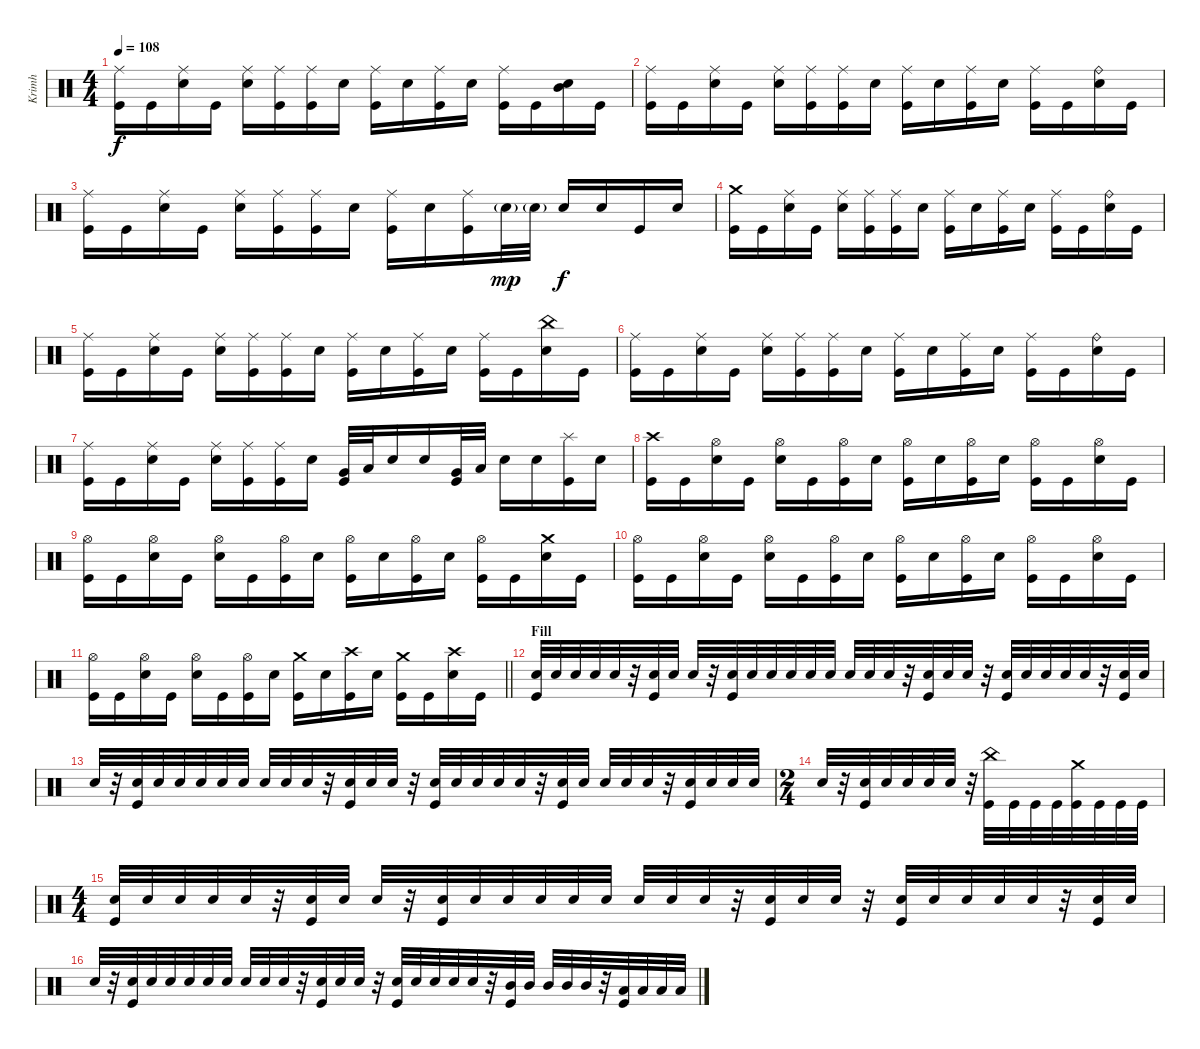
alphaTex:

\track ("Krimh" "Krimh") {instrument percussion}
\staff {score}
\articulation defaults
\ts (4 4)
\tempo 108
\clef neutral
\ks c
("Ride (middle)" "Kick (hit)").16{dy f} "Kick (hit)".16 ("Ride (middle)" "Electric Snare (hit)").16 "Kick (hit)".16 ("Ride (middle)" "Electric Snare (hit)").16 ("Ride (middle)" "Kick (hit)").16 ("Ride (middle)" "Kick (hit)").16 "Electric Snare (hit)".16 ("Ride (middle)" "Kick (hit)").16 "Electric Snare (hit)".16 ("Ride (middle)" "Kick (hit)").16 "Electric Snare (hit)".16 ("Ride (middle)" "Kick (hit)").16 "Kick (hit)".16 ("Mid Tom (hit)" "Electric Snare (hit)").16 "Kick (hit)".16 |
("Ride (middle)" "Kick (hit)").16 "Kick (hit)".16 ("Ride (middle)" "Electric Snare (hit)").16 "Kick (hit)".16 ("Ride (middle)" "Electric Snare (hit)").16 ("Ride (middle)" "Kick (hit)").16 ("Ride (middle)" "Kick (hit)").16 "Electric Snare (hit)".16 ("Ride (middle)" "Kick (hit)").16 "Electric Snare (hit)".16 ("Ride (middle)" "Kick (hit)").16 "Electric Snare (hit)".16 ("Ride (middle)" "Kick (hit)").16 "Kick (hit)".16 ("Ride (bell)" "Electric Snare (hit)").16 "Kick (hit)".16 |
("Ride (middle)" "Kick (hit)").16 "Kick (hit)".16 ("Ride (middle)" "Electric Snare (hit)").16 "Kick (hit)".16 ("Ride (middle)" "Electric Snare (hit)").16 ("Ride (middle)" "Kick (hit)").16 ("Ride (middle)" "Kick (hit)").16 "Electric Snare (hit)".16 ("Ride (middle)" "Kick (hit)").16 "Electric Snare (hit)".16 ("Ride (middle)" "Kick (hit)").16 "Electric Snare (hit)"{g}.32{dy mp} "Electric Snare (hit)"{g}.32 "Electric Snare (hit)".16{dy f} "Electric Snare (hit)".16 "Kick (hit)".16 "Electric Snare (hit)".16 |
("Crash medium (hit)" "Kick (hit)").16 "Kick (hit)".16 ("Ride (middle)" "Electric Snare (hit)").16 "Kick (hit)".16 ("Ride (middle)" "Electric Snare (hit)").16 ("Ride (middle)" "Kick (hit)").16 ("Ride (middle)" "Kick (hit)").16 "Electric Snare (hit)".16 ("Ride (middle)" "Kick (hit)").16 "Electric Snare (hit)".16 ("Ride (middle)" "Kick (hit)").16 "Electric Snare (hit)".16 ("Ride (middle)" "Kick (hit)").16 "Kick (hit)".16 ("Ride (bell)" "Electric Snare (hit)").16 "Kick (hit)".16 |
("Ride (middle)" "Kick (hit)").16 "Kick (hit)".16 ("Ride (middle)" "Electric Snare (hit)").16 "Kick (hit)".16 ("Ride (middle)" "Electric Snare (hit)").16 ("Ride (middle)" "Kick (hit)").16 ("Ride (middle)" "Kick (hit)").16 "Electric Snare (hit)".16 ("Ride (middle)" "Kick (hit)").16 "Electric Snare (hit)".16 ("Ride (middle)" "Kick (hit)").16 "Electric Snare (hit)".16 ("Ride (middle)" "Kick (hit)").16 "Kick (hit)".16 ("China (hit)" "Electric Snare (hit)").16 "Kick (hit)".16 |
("Ride (middle)" "Kick (hit)").16 "Kick (hit)".16 ("Ride (middle)" "Electric Snare (hit)").16 "Kick (hit)".16 ("Ride (middle)" "Electric Snare (hit)").16 ("Ride (middle)" "Kick (hit)").16 ("Ride (middle)" "Kick (hit)").16 "Electric Snare (hit)".16 ("Ride (middle)" "Kick (hit)").16 "Electric Snare (hit)".16 ("Ride (middle)" "Kick (hit)").16 "Electric Snare (hit)".16 ("Ride (middle)" "Kick (hit)").16 "Kick (hit)".16 ("Ride (bell)" "Electric Snare (hit)").16 "Kick (hit)".16 |
("Ride (middle)" "Kick (hit)").16 "Kick (hit)".16 ("Ride (middle)" "Electric Snare (hit)").16 "Kick (hit)".16 ("Ride (middle)" "Electric Snare (hit)").16 ("Ride (middle)" "Kick (hit)").16 ("Ride (middle)" "Kick (hit)").16 "Electric Snare (hit)".16 ("Very Low Tom (hit)" "Kick (hit)").32 "Low Tom (hit)".32 "Electric Snare (hit)".16 "Electric Snare (hit)".16 ("Very Low Tom (hit)" "Kick (hit)").32 "Low Tom (hit)".32 "Electric Snare (hit)".16 "Electric Snare (hit)".16 ("Splash (hit)" "Kick (hit)").16 "Electric Snare (hit)".16 |
("Crash high (hit)" "Kick (hit)").16 "Kick (hit)".16 ("Hi-Hat (open)" "Electric Snare (hit)").16 "Kick (hit)".16 ("Hi-Hat (open)" "Electric Snare (hit)").16 "Kick (hit)".16 ("Hi-Hat (open)" "Kick (hit)").16 "Electric Snare (hit)".16 ("Hi-Hat (open)" "Kick (hit)").16 "Electric Snare (hit)".16 ("Hi-Hat (open)" "Kick (hit)").16 "Electric Snare (hit)".16 ("Hi-Hat (open)" "Kick (hit)").16 "Kick (hit)".16 ("Hi-Hat (open)" "Electric Snare (hit)").16 "Kick (hit)".16 |
("Hi-Hat (open)" "Kick (hit)").16 "Kick (hit)".16 ("Hi-Hat (open)" "Electric Snare (hit)").16 "Kick (hit)".16 ("Hi-Hat (open)" "Electric Snare (hit)").16 "Kick (hit)".16 ("Hi-Hat (open)" "Kick (hit)").16 "Electric Snare (hit)".16 ("Hi-Hat (open)" "Kick (hit)").16 "Electric Snare (hit)".16 ("Hi-Hat (open)" "Kick (hit)").16 "Electric Snare (hit)".16 ("Hi-Hat (open)" "Kick (hit)").16 "Kick (hit)".16 ("Crash medium (hit)" "Electric Snare (hit)").16 "Kick (hit)".16 |
("Hi-Hat (open)" "Kick (hit)").16 "Kick (hit)".16 ("Hi-Hat (open)" "Electric Snare (hit)").16 "Kick (hit)".16 ("Hi-Hat (open)" "Electric Snare (hit)").16 "Kick (hit)".16 ("Hi-Hat (open)" "Kick (hit)").16 "Electric Snare (hit)".16 ("Hi-Hat (open)" "Kick (hit)").16 "Electric Snare (hit)".16 ("Hi-Hat (open)" "Kick (hit)").16 "Electric Snare (hit)".16 ("Hi-Hat (open)" "Kick (hit)").16 "Kick (hit)".16 ("Hi-Hat (open)" "Electric Snare (hit)").16 "Kick (hit)".16 |
\barLineRight lightlight
("Hi-Hat (open)" "Kick (hit)").16 "Kick (hit)".16 ("Hi-Hat (open)" "Electric Snare (hit)").16 "Kick (hit)".16 ("Hi-Hat (open)" "Electric Snare (hit)").16 "Kick (hit)".16 ("Hi-Hat (open)" "Kick (hit)").16 "Electric Snare (hit)".16 ("Crash medium (hit)" "Kick (hit)").16 "Electric Snare (hit)".16 ("Crash high (hit)" "Kick (hit)").16 "Electric Snare (hit)".16 ("Crash medium (hit)" "Kick (hit)").16 "Kick (hit)".16 ("Crash high (hit)" "Electric Snare (hit)").16 "Kick (hit)".16 |
\section ("" "Fill")
("Electric Snare (hit)" "Kick (hit)").32 "Electric Snare (hit)".32 "Electric Snare (hit)".32 "Electric Snare (hit)".32 "Electric Snare (hit)".32 r.32 ("Electric Snare (hit)" "Kick (hit)").32 "Electric Snare (hit)".32 "Electric Snare (hit)".32 r.32 ("Electric Snare (hit)" "Kick (hit)").32 "Electric Snare (hit)".32 "Electric Snare (hit)".32 "Electric Snare (hit)".32 "Electric Snare (hit)".32 "Electric Snare (hit)".32 "Electric Snare (hit)".32 "Electric Snare (hit)".32 "Electric Snare (hit)".32 r.32 ("Electric Snare (hit)" "Kick (hit)").32 "Electric Snare (hit)".32 "Electric Snare (hit)".32 r.32 ("Electric Snare (hit)" "Kick (hit)").32 "Electric Snare (hit)".32 "Electric Snare (hit)".32 "Electric Snare (hit)".32 "Electric Snare (hit)".32 r.32 ("Electric Snare (hit)" "Kick (hit)").32 "Electric Snare (hit)".32 |
"Electric Snare (hit)".32 r.32 ("Electric Snare (hit)" "Kick (hit)").32 "Electric Snare (hit)".32 "Electric Snare (hit)".32 "Electric Snare (hit)".32 "Electric Snare (hit)".32 "Electric Snare (hit)".32 "Electric Snare (hit)".32 "Electric Snare (hit)".32 "Electric Snare (hit)".32 r.32 ("Electric Snare (hit)" "Kick (hit)").32 "Electric Snare (hit)".32 "Electric Snare (hit)".32 r.32 ("Electric Snare (hit)" "Kick (hit)").32 "Electric Snare (hit)".32 "Electric Snare (hit)".32 "Electric Snare (hit)".32 "Electric Snare (hit)".32 r.32 ("Electric Snare (hit)" "Kick (hit)").32 "Electric Snare (hit)".32 "Electric Snare (hit)".32 "Electric Snare (hit)".32 "Electric Snare (hit)".32 r.32 ("Electric Snare (hit)" "Kick (hit)").32 "Electric Snare (hit)".32 "Electric Snare (hit)".32 "Electric Snare (hit)".32 |
\ts (2 4)
"Electric Snare (hit)".32 r.32 ("Electric Snare (hit)" "Kick (hit)").32 "Electric Snare (hit)".32 "Electric Snare (hit)".32 "Electric Snare (hit)".32 "Electric Snare (hit)".32 r.32 ("China (hit)" "Kick (hit)").32 "Kick (hit)".32 "Kick (hit)".32 "Kick (hit)".32 ("Crash medium (hit)" "Kick (hit)").32 "Kick (hit)".32 "Kick (hit)".32 "Kick (hit)".32 |
\ts (4 4)
("Electric Snare (hit)" "Kick (hit)").32 "Electric Snare (hit)".32 "Electric Snare (hit)".32 "Electric Snare (hit)".32 "Electric Snare (hit)".32 r.32 ("Electric Snare (hit)" "Kick (hit)").32 "Electric Snare (hit)".32 "Electric Snare (hit)".32 r.32 ("Electric Snare (hit)" "Kick (hit)").32 "Electric Snare (hit)".32 "Electric Snare (hit)".32 "Electric Snare (hit)".32 "Electric Snare (hit)".32 "Electric Snare (hit)".32 "Electric Snare (hit)".32 "Electric Snare (hit)".32 "Electric Snare (hit)".32 r.32 ("Electric Snare (hit)" "Kick (hit)").32 "Electric Snare (hit)".32 "Electric Snare (hit)".32 r.32 ("Electric Snare (hit)" "Kick (hit)").32 "Electric Snare (hit)".32 "Electric Snare (hit)".32 "Electric Snare (hit)".32 "Electric Snare (hit)".32 r.32 ("Electric Snare (hit)" "Kick (hit)").32 "Electric Snare (hit)".32 |
"Electric Snare (hit)".32 r.32 ("Electric Snare (hit)" "Kick (hit)").32 "Electric Snare (hit)".32 "Electric Snare (hit)".32 "Electric Snare (hit)".32 "Electric Snare (hit)".32 "Electric Snare (hit)".32 "Electric Snare (hit)".32 "Electric Snare (hit)".32 "Electric Snare (hit)".32 r.32 ("Electric Snare (hit)" "Kick (hit)").32 "Electric Snare (hit)".32 "Electric Snare (hit)".32 r.32 ("Electric Snare (hit)" "Kick (hit)").32 "Electric Snare (hit)".32 "Electric Snare (hit)".32 "Electric Snare (hit)".32 "Electric Snare (hit)".32 r.32 ("Mid Tom (hit)" "Kick (hit)").32 "Mid Tom (hit)".32 "Mid Tom (hit)".32 "Mid Tom (hit)".32 "Mid Tom (hit)".32 r.32 ("Low Tom (hit)" "Kick (hit)").32 "Low Tom (hit)".32 "Low Tom (hit)".32 "Low Tom (hit)".32
